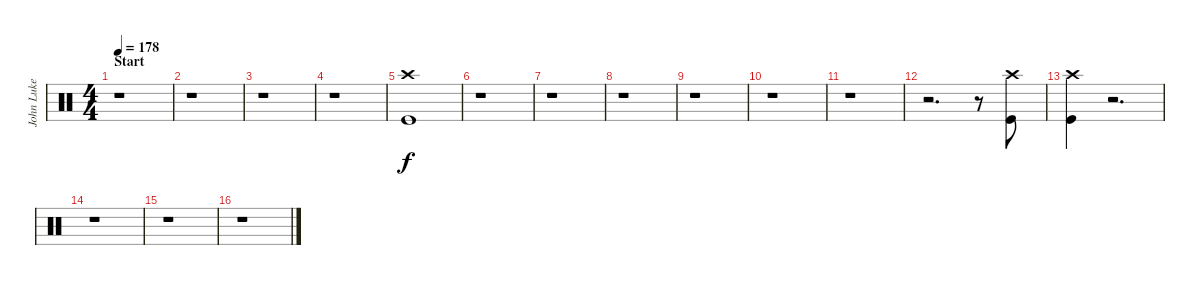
\track ("John Luke (Drums)" "John Luke ") {instrument percussion}
\staff {score}
\articulation defaults
\ts (4 4)
\section ("" "Start")
\tempo 178
\clef neutral
\ks c
r.1{dy f} |
r.1 |
r.1 |
r.1 |
("Crash high (hit)" "Kick (hit)").1 |
r.1 |
r.1 |
r.1 |
r.1 |
r.1 |
r.1 |
r.2{d} r.8 ("Crash high (hit)" "Kick (hit)").8 |
("Crash high (hit)" "Kick (hit)").4 r.2{d} |
r.1 |
r.1 |
r.1
